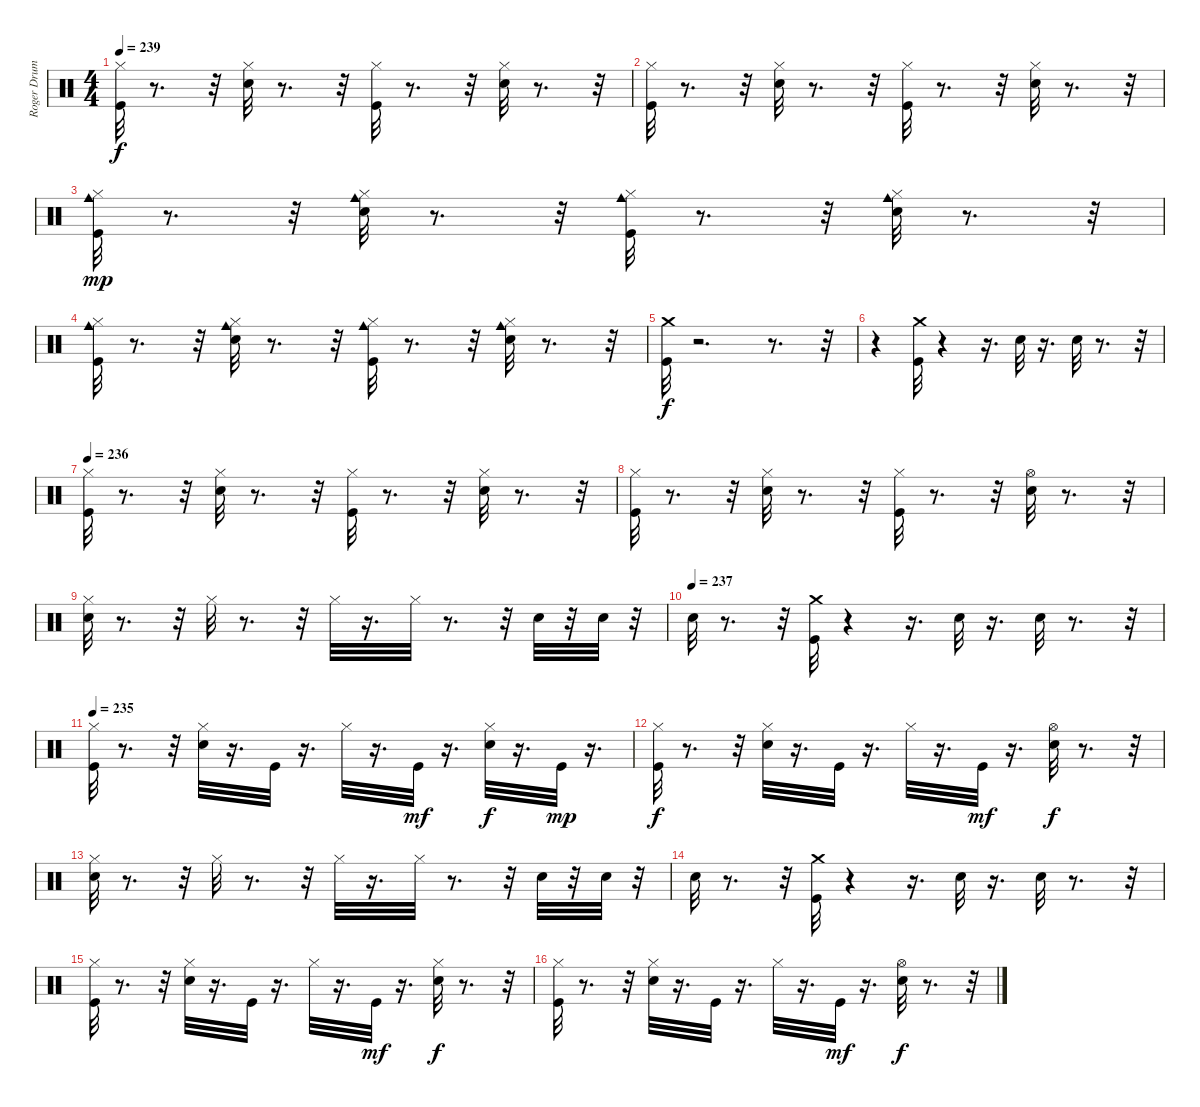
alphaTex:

\track ("Roger Drums" "Roger Drum") {instrument percussion}
\staff {score}
\articulation defaults
\ts (4 4)
\tempo 239
\clef neutral
\ks c
("Hi-Hat (closed)" "Kick (hit)").32{dy f} r.8{d} r.32 ("Hi-Hat (closed)" "Electric Snare (hit)").32 r.8{d} r.32 ("Hi-Hat (closed)" "Kick (hit)").32 r.8{d} r.32 ("Hi-Hat (closed)" "Electric Snare (hit)").32 r.8{d} r.32 |
("Hi-Hat (closed)" "Kick (hit)").32 r.8{d} r.32 ("Hi-Hat (closed)" "Electric Snare (hit)").32 r.8{d} r.32 ("Hi-Hat (closed)" "Kick (hit)").32 r.8{d} r.32 ("Hi-Hat (closed)" "Electric Snare (hit)").32 r.8{d} r.32 |
("Cowbell medium (hit)" "Hi-Hat (closed)" "Kick (hit)").32{dy mp} r.8{d} r.32 ("Cowbell medium (hit)" "Hi-Hat (closed)" "Electric Snare (hit)").32 r.8{d} r.32 ("Cowbell medium (hit)" "Hi-Hat (closed)" "Kick (hit)").32 r.8{d} r.32 ("Cowbell medium (hit)" "Hi-Hat (closed)" "Electric Snare (hit)").32 r.8{d} r.32 |
("Cowbell medium (hit)" "Hi-Hat (closed)" "Kick (hit)").32 r.8{d} r.32 ("Cowbell medium (hit)" "Hi-Hat (closed)" "Electric Snare (hit)").32 r.8{d} r.32 ("Cowbell medium (hit)" "Hi-Hat (closed)" "Kick (hit)").32 r.8{d} r.32 ("Cowbell medium (hit)" "Hi-Hat (closed)" "Electric Snare (hit)").32 r.8{d} r.32 |
("Crash medium (hit)" "Kick (hit)").32{dy f} r.2{d} r.8{d} r.32 |
r.4 ("Kick (hit)" "Crash medium (hit)").32 r.4 r.16{d} "Electric Snare (hit)".32 r.16{d} "Electric Snare (hit)".32 r.8{d} r.32 |
\tempo 236
("Hi-Hat (closed)" "Kick (hit)").32 r.8{d} r.32 ("Hi-Hat (closed)" "Electric Snare (hit)").32 r.8{d} r.32 ("Hi-Hat (closed)" "Kick (hit)").32 r.8{d} r.32 ("Hi-Hat (closed)" "Electric Snare (hit)").32 r.8{d} r.32 |
("Hi-Hat (closed)" "Kick (hit)").32 r.8{d} r.32 ("Hi-Hat (closed)" "Electric Snare (hit)").32 r.8{d} r.32 ("Hi-Hat (closed)" "Kick (hit)").32 r.8{d} r.32 ("Hi-Hat (open)" "Electric Snare (hit)").32 r.8{d} r.32 |
("Hi-Hat (closed)" "Electric Snare (hit)").32 r.8{d} r.32 "Hi-Hat (closed)".32 r.8{d} r.32 "Hi-Hat (closed)".32 r.16{d} "Hi-Hat (closed)".32 r.8{d} r.32 "Electric Snare (hit)".32 r.32 "Electric Snare (hit)".32 r.32 |
\tempo (237)
"Electric Snare (hit)".32 r.8{d} r.32 ("Kick (hit)" "Crash medium (hit)").32 r.4 r.16{d} "Electric Snare (hit)".32 r.16{d} "Electric Snare (hit)".32 r.8{d} r.32 |
\tempo 235
("Hi-Hat (closed)" "Kick (hit)").32 r.8{d} r.32 ("Hi-Hat (closed)" "Electric Snare (hit)").32 r.16{d} "Kick (hit)".32 r.16{d} "Hi-Hat (closed)".32 r.16{d} "Kick (hit)".32{dy mf} r.16{d} ("Hi-Hat (closed)" "Electric Snare (hit)").32{dy f} r.16{d} "Kick (hit)".32{dy mp} r.16{d} |
("Hi-Hat (closed)" "Kick (hit)").32{dy f} r.8{d} r.32 ("Hi-Hat (closed)" "Electric Snare (hit)").32 r.16{d} "Kick (hit)".32 r.16{d} "Hi-Hat (closed)".32 r.16{d} "Kick (hit)".32{dy mf} r.16{d} ("Hi-Hat (open)" "Electric Snare (hit)").32{dy f} r.8{d} r.32 |
("Hi-Hat (closed)" "Electric Snare (hit)").32 r.8{d} r.32 "Hi-Hat (closed)".32 r.8{d} r.32 "Hi-Hat (closed)".32 r.16{d} "Hi-Hat (closed)".32 r.8{d} r.32 "Electric Snare (hit)".32 r.32 "Electric Snare (hit)".32 r.32 |
"Electric Snare (hit)".32 r.8{d} r.32 ("Kick (hit)" "Crash medium (hit)").32 r.4 r.16{d} "Electric Snare (hit)".32 r.16{d} "Electric Snare (hit)".32 r.8{d} r.32 |
("Hi-Hat (closed)" "Kick (hit)").32 r.8{d} r.32 ("Hi-Hat (closed)" "Electric Snare (hit)").32 r.16{d} "Kick (hit)".32 r.16{d} "Hi-Hat (closed)".32 r.16{d} "Kick (hit)".32{dy mf} r.16{d} ("Hi-Hat (closed)" "Electric Snare (hit)").32{dy f} r.8{d} r.32 |
("Hi-Hat (closed)" "Kick (hit)").32 r.8{d} r.32 ("Hi-Hat (closed)" "Electric Snare (hit)").32 r.16{d} "Kick (hit)".32 r.16{d} "Hi-Hat (closed)".32 r.16{d} "Kick (hit)".32{dy mf} r.16{d} ("Hi-Hat (open)" "Electric Snare (hit)").32{dy f} r.8{d} r.32
